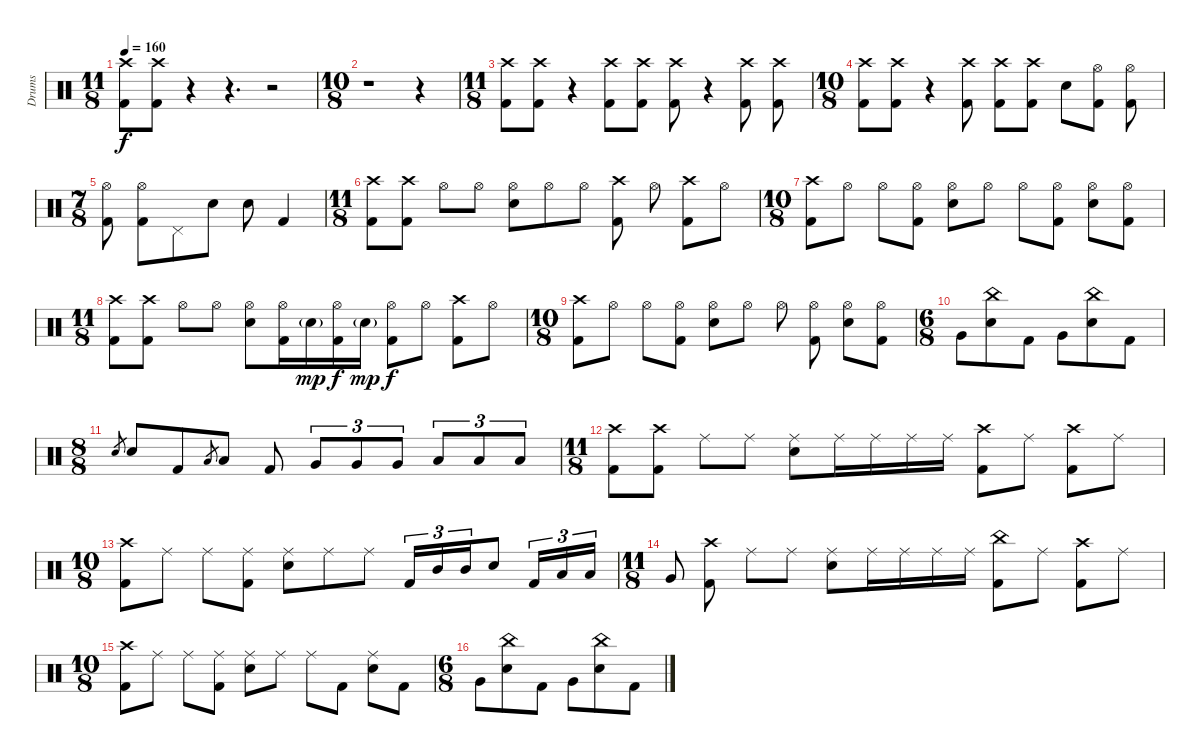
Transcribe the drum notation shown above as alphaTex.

\track ("Drums" "Drums") {instrument percussion}
\staff {score}
\articulation defaults
\ts (11 8)
\tempo 160
\clef neutral
\ks c
("Crash high (hit)" "Kick (hit) 2").8{dy f volume 13} ("Crash high (hit)" "Kick (hit) 2").8 r.4{volume 0} r.4{d} r.2 |
\ts (10 8)
r.1 r.4 |
\ts (11 8)
("Crash high (hit)" "Kick (hit) 2").8{volume 13} ("Crash high (hit)" "Kick (hit) 2").8 r.4{volume 0} ("Crash high (hit)" "Kick (hit) 2").8{volume 13} ("Crash high (hit)" "Kick (hit) 2").8 ("Crash high (hit)" "Kick (hit) 2").8 r.4{volume 0} ("Crash high (hit)" "Kick (hit) 2").8{volume 13} ("Crash high (hit)" "Kick (hit) 2").8 |
\ts (10 8)
("Crash high (hit)" "Kick (hit) 2").8 ("Crash high (hit)" "Kick (hit) 2").8 r.4{volume 0} ("Crash high (hit)" "Kick (hit) 2").8{volume 13 beam split} ("Crash high (hit)" "Kick (hit) 2").8{beam merge} ("Crash high (hit)" "Kick (hit) 2").8{beam split} "Electric Snare (hit)".8{beam merge} ("Hi-Hat (open)" "Kick (hit) 2").8{beam split} ("Hi-Hat (open)" "Kick (hit) 2").8 |
\ts (7 8)
("Hi-Hat (open)" "Kick (hit) 2").8{beam split} ("Hi-Hat (open)" "Kick (hit) 2").8 "Pedal Hi-Hat (hit)".8 "Electric Snare (hit)".8 "Electric Snare (hit)".8 "Kick (hit) 2".4 |
\ts (11 8)
("Crash high (hit)" "Kick (hit) 2").8 ("Crash high (hit)" "Kick (hit) 2").8{beam split} "Hi-Hat (open)".8{beam merge} "Hi-Hat (open)".8{beam split} ("Hi-Hat (open)" "Electric Snare (hit)").8 "Hi-Hat (open)".8{beam merge} "Hi-Hat (open)".8{beam split} ("Crash high (hit)" "Kick (hit) 2").8 "Hi-Hat (open)".8{beam split} ("Crash high (hit)" "Kick (hit) 2").8{beam merge} "Hi-Hat (open)".8 |
\ts (10 8)
("Crash high (hit)" "Kick (hit) 2").8 "Hi-Hat (open)".8{beam split} "Hi-Hat (open)".8{beam merge} ("Hi-Hat (open)" "Kick (hit) 2").8{beam split} ("Hi-Hat (open)" "Electric Snare (hit)").8 "Hi-Hat (open)".8{beam split} "Hi-Hat (open)".8{beam merge} ("Hi-Hat (open)" "Kick (hit) 2").8{beam split} ("Hi-Hat (open)" "Electric Snare (hit)").8{beam merge} ("Hi-Hat (open)" "Kick (hit) 2").8 |
\ts (11 8)
("Crash high (hit)" "Kick (hit) 2").8 ("Crash high (hit)" "Kick (hit) 2").8{beam split} "Hi-Hat (open)".8{beam merge} "Hi-Hat (open)".8{beam split} ("Hi-Hat (open)" "Electric Snare (hit)").8{beam merge} ("Hi-Hat (open)" "Kick (hit) 2").16 "Electric Snare (hit)"{g}.16{dy mp beam merge} ("Hi-Hat (open)" "Kick (hit) 2").16{dy f} "Electric Snare (hit)"{g}.16{dy mp beam split} ("Hi-Hat (open)" "Kick (hit) 2").8{dy f beam merge} "Hi-Hat (open)".8{beam split} ("Crash high (hit)" "Kick (hit) 2").8{beam merge} "Hi-Hat (open)".8 |
\ts (10 8)
("Crash high (hit)" "Kick (hit) 2").8 "Hi-Hat (open)".8{beam split} "Hi-Hat (open)".8{beam merge} ("Hi-Hat (open)" "Kick (hit) 2").8{beam split} ("Hi-Hat (open)" "Electric Snare (hit)").8 "Hi-Hat (open)".8{beam split} "Hi-Hat (open)".8 ("Hi-Hat (open)" "Kick (hit) 2").8{beam split} ("Hi-Hat (open)" "Electric Snare (hit)").8{beam merge} ("Hi-Hat (open)" "Kick (hit) 2").8 |
\ts (6 8)
"Very Low Tom (hit)".8 ("China (hit)" "Electric Snare (hit)").8 "Kick (hit) 2".8{beam split} "Very Low Tom (hit)".8 ("China (hit)" "Electric Snare (hit)").8 "Kick (hit) 2".8 |
\ts (8 8)
"Electric Snare (hit)".8{gr} "Electric Snare (hit)".8 "Kick (hit) 2".8 "Low Tom (hit)".8{gr} "Low Tom (hit)".8 "Kick (hit) 2".8 "Very Low Tom (hit)".8{tu (3 2)} "Very Low Tom (hit)".8{tu (3 2) beam merge} "Very Low Tom (hit)".8{tu (3 2)} "Low Floor Tom (hit)".8{tu (3 2)} "Low Floor Tom (hit)".8{tu (3 2) beam merge} "Low Floor Tom (hit)".8{tu (3 2)} |
\ts (11 8)
("Crash high (hit)" "Kick (hit) 2").8 ("Crash high (hit)" "Kick (hit) 2").8{beam split} "Ride (middle)".8{beam merge} "Ride (middle)".8{beam split} ("Ride (middle)" "Electric Snare (hit)").8{beam merge} "Ride (middle)".16 "Ride (middle)".16{beam merge} "Ride (middle)".16{beam merge} "Ride (middle)".16{beam split} ("Crash high (hit)" "Kick (hit) 2").8{beam merge} "Ride (middle)".8{beam split} ("Crash high (hit)" "Kick (hit) 2").8{beam merge} "Ride (middle)".8 |
\ts (10 8)
("Crash high (hit)" "Kick (hit) 2").8 "Ride (middle)".8{beam split} "Ride (middle)".8{beam merge} ("Ride (middle)" "Kick (hit) 2").8{beam split} ("Ride (middle)" "Electric Snare (hit)").8 "Ride (middle)".8{beam merge} "Ride (middle)".8{beam split} "Kick (hit) 2".16{tu (3 2)} "Mid Tom (hit)".16{tu (3 2) beam merge} "Mid Tom (hit)".16{tu (3 2) beam merge} "Electric Snare (hit)".8{beam split} "Kick (hit) 2".16{tu (3 2)} "Low Tom (hit)".16{tu (3 2) beam merge} "Low Tom (hit)".16{tu (3 2)} |
\ts (11 8)
"Very Low Tom (hit)".8{beam split} ("Crash high (hit)" "Kick (hit) 2").8{beam split} "Ride (middle)".8{beam merge} "Ride (middle)".8{beam split} ("Ride (middle)" "Electric Snare (hit)").8{beam merge} "Ride (middle)".16 "Ride (middle)".16{beam merge} "Ride (middle)".16{beam merge} "Ride (middle)".16{beam split} ("China (hit)" "Kick (hit) 2").8{beam merge} "Ride (middle)".8{beam split} ("Crash high (hit)" "Kick (hit) 2").8{beam merge} "Ride (middle)".8 |
\ts (10 8)
("Crash high (hit)" "Kick (hit) 2").8 "Ride (middle)".8{beam split} "Ride (middle)".8{beam merge} ("Ride (middle)" "Kick (hit) 2").8{beam split} ("Ride (middle)" "Electric Snare (hit)").8 "Ride (middle)".8{beam split} "Ride (middle)".8{beam merge} "Kick (hit) 2".8{beam split} ("Ride (middle)" "Electric Snare (hit)").8{beam merge} "Kick (hit) 2".8 |
\ts (6 8)
"Very Low Tom (hit)".8 ("China (hit)" "Electric Snare (hit)").8 "Kick (hit) 2".8{beam split} "Very Low Tom (hit)".8 ("China (hit)" "Electric Snare (hit)").8 "Kick (hit) 2".8
